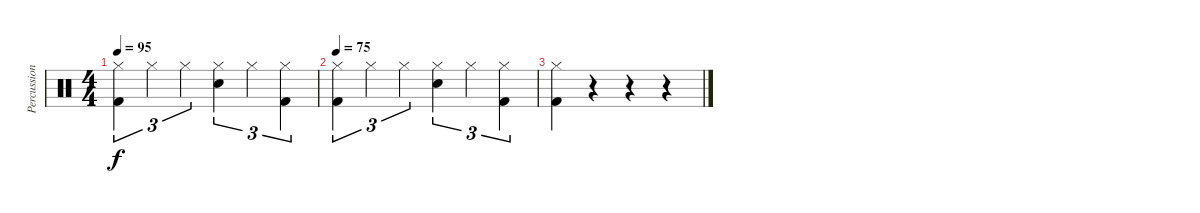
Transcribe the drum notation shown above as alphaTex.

\track ("Percussion" "Percussion") {instrument percussion}
\staff {score}
\articulation defaults
\ts (4 4)
\tempo 95
\clef neutral
\ks c
("Hi-Hat (closed)" "Kick (hit) 2").4{tu (3 2) dy f} "Hi-Hat (closed)".4{tu (3 2)} "Hi-Hat (closed)".4{tu (3 2)} ("Hi-Hat (closed)" "Electric Snare (hit)").4{tu (3 2)} "Hi-Hat (closed)".4{tu (3 2)} ("Hi-Hat (closed)" "Kick (hit) 2").4{tu (3 2)} |
\tempo 75
("Hi-Hat (closed)" "Kick (hit) 2").4{tu (3 2)} "Hi-Hat (closed)".4{tu (3 2)} "Hi-Hat (closed)".4{tu (3 2)} ("Hi-Hat (closed)" "Electric Snare (hit)").4{tu (3 2)} "Hi-Hat (closed)".4{tu (3 2)} ("Hi-Hat (closed)" "Kick (hit) 2").4{tu (3 2)} |
("Hi-Hat (closed)" "Kick (hit) 2").4 r.4 r.4 r.4
